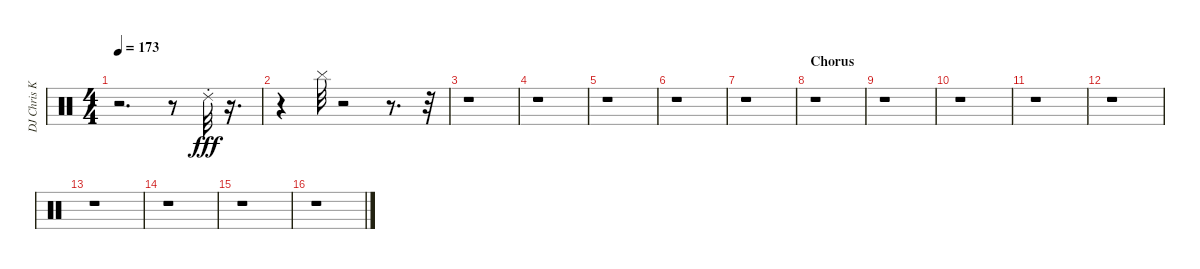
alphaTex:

\track ("DJ Chris Kilmore-Turntables" "DJ Chris K") {instrument percussion}
\staff {score}
\articulation defaults
\ts (4 4)
\tempo 173
\clef neutral
\ks c
r.2{d dy fff} r.8 "Ride (choke) 2".32 r.16{d} |
r.4 "Cymbal (hit)".32 r.2 r.8{d} r.32 |
r.1 |
r.1 |
r.1 |
r.1 |
r.1 |
\section ("" "Chorus")
r.1 |
r.1 |
r.1 |
r.1 |
r.1 |
r.1 |
r.1 |
r.1 |
r.1
